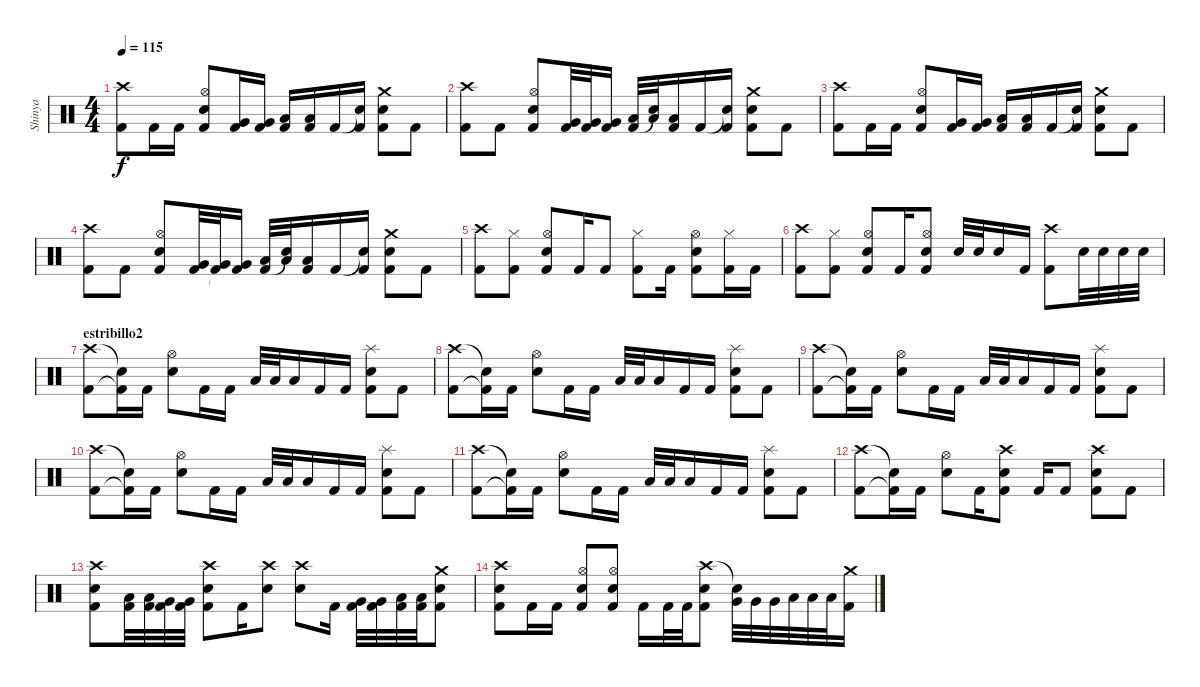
\track ("Shinya" "Shinya") {instrument percussion}
\staff {score}
\articulation defaults
\ts (4 4)
\tempo 115
\clef neutral
\ks c
("Crash high (hit)" "Kick (hit) 2").8{dy f} "Kick (hit) 2".16 "Kick (hit) 2".16 ("Hi-Hat (open)" "Electric Snare (hit)" "Kick (hit) 2").8 ("Very Low Tom (hit)" "Kick (hit) 2").16 ("Very Low Tom (hit)" "Kick (hit) 2").16 ("Low Floor Tom (hit)" "Kick (hit) 2").16 ("Low Floor Tom (hit)" "Kick (hit) 2").16 "Kick (hit) 2".16 ("Snare (hit)"{t} "Kick (hit) 2").16 ("Crash medium (hit)" "Electric Snare (hit)" "Kick (hit) 2").8 "Kick (hit) 2".8 |
("Crash high (hit)" "Kick (hit) 2").8 "Kick (hit) 2".8 ("Hi-Hat (open)" "Electric Snare (hit)" "Kick (hit) 2").8 ("Very Low Tom (hit)" "Kick (hit) 2").32 ("Very Low Tom (hit)" "Kick (hit) 2"{t}).32 ("Very Low Tom (hit)" "Kick (hit) 2").16 ("Low Floor Tom (hit)" "Kick (hit) 2").32 ("Low Floor Tom (hit)" "Snare (hit)"{t}).32 ("Low Floor Tom (hit)" "Kick (hit) 2").16 "Kick (hit) 2".16 ("Snare (hit)"{t} "Kick (hit) 2").16 ("Crash medium (hit)" "Electric Snare (hit)" "Kick (hit) 2").8 "Kick (hit) 2".8 |
("Crash high (hit)" "Kick (hit) 2").8 "Kick (hit) 2".16 "Kick (hit) 2".16 ("Hi-Hat (open)" "Electric Snare (hit)" "Kick (hit) 2").8 ("Very Low Tom (hit)" "Kick (hit) 2").16 ("Very Low Tom (hit)" "Kick (hit) 2").16 ("Low Floor Tom (hit)" "Kick (hit) 2").16 ("Low Floor Tom (hit)" "Kick (hit) 2").16 "Kick (hit) 2".16 ("Snare (hit)"{t} "Kick (hit) 2").16 ("Crash medium (hit)" "Electric Snare (hit)" "Kick (hit) 2").8 "Kick (hit) 2".8 |
("Crash high (hit)" "Kick (hit) 2").8 "Kick (hit) 2".8 ("Hi-Hat (open)" "Electric Snare (hit)" "Kick (hit) 2").8 ("Very Low Tom (hit)" "Kick (hit) 2").32 ("Very Low Tom (hit)" "Kick (hit) 2"{t}).32 ("Very Low Tom (hit)" "Kick (hit) 2").16 ("Low Floor Tom (hit)" "Kick (hit) 2").32 ("Low Floor Tom (hit)" "Snare (hit)"{t}).32 ("Low Floor Tom (hit)" "Kick (hit) 2").16 "Kick (hit) 2".16 ("Snare (hit)"{t} "Kick (hit) 2").16 ("Crash medium (hit)" "Electric Snare (hit)" "Kick (hit) 2").8 "Kick (hit) 2".8 |
("Crash high (hit)" "Kick (hit) 2").8 ("Hi-Hat (closed)" "Kick (hit) 2").8 ("Hi-Hat (open)" "Electric Snare (hit)" "Kick (hit) 2").8 "Kick (hit) 2".16 "Kick (hit) 2".8 ("Hi-Hat (closed)" "Kick (hit) 2").8 "Kick (hit) 2".16 ("Hi-Hat (open)" "Electric Snare (hit)" "Kick (hit) 2").8 ("Hi-Hat (closed)" "Kick (hit) 2").16 "Kick (hit) 2".16 |
("Crash high (hit)" "Kick (hit) 2").8 ("Hi-Hat (closed)" "Kick (hit) 2").8 ("Hi-Hat (open)" "Electric Snare (hit)" "Kick (hit) 2").8 "Kick (hit) 2".16 ("Hi-Hat (open)" "Electric Snare (hit)" "Kick (hit) 2").8 "Electric Snare (hit)".32 "Electric Snare (hit)".32 "Electric Snare (hit)".16 "Kick (hit) 2".16 ("Crash high (hit)" "Kick (hit) 2").8 "Electric Snare (hit)".32 "Electric Snare (hit)".32 "Electric Snare (hit)".32 "Electric Snare (hit)".32 |
\section ("" "estribillo2")
("Crash high (hit)" "Kick (hit) 2").8 ("Snare (hit)"{t} "Kick (hit) 2"{t}).16 "Kick (hit) 2".16 ("Hi-Hat (open)" "Electric Snare (hit)").8 "Kick (hit) 2".16 "Kick (hit) 2".16 "Low Floor Tom (hit)".32 "Low Floor Tom (hit)".32 "Low Floor Tom (hit)".16 "Kick (hit) 2".16 "Kick (hit) 2".16 ("Splash (hit)" "Electric Snare (hit)" "Kick (hit) 2").8 "Kick (hit) 2".8 |
("Crash high (hit)" "Kick (hit) 2").8 ("Snare (hit)"{t} "Kick (hit) 2"{t}).16 "Kick (hit) 2".16 ("Hi-Hat (open)" "Electric Snare (hit)").8 "Kick (hit) 2".16 "Kick (hit) 2".16 "Low Floor Tom (hit)".32 "Low Floor Tom (hit)".32 "Low Floor Tom (hit)".16 "Kick (hit) 2".16 "Kick (hit) 2".16 ("Splash (hit)" "Electric Snare (hit)" "Kick (hit) 2").8 "Kick (hit) 2".8 |
("Crash high (hit)" "Kick (hit) 2").8 ("Snare (hit)"{t} "Kick (hit) 2"{t}).16 "Kick (hit) 2".16 ("Hi-Hat (open)" "Electric Snare (hit)").8 "Kick (hit) 2".16 "Kick (hit) 2".16 "Low Floor Tom (hit)".32 "Low Floor Tom (hit)".32 "Low Floor Tom (hit)".16 "Kick (hit) 2".16 "Kick (hit) 2".16 ("Splash (hit)" "Electric Snare (hit)" "Kick (hit) 2").8 "Kick (hit) 2".8 |
("Crash high (hit)" "Kick (hit) 2").8 ("Snare (hit)"{t} "Kick (hit) 2"{t}).16 "Kick (hit) 2".16 ("Hi-Hat (open)" "Electric Snare (hit)").8 "Kick (hit) 2".16 "Kick (hit) 2".16 "Low Floor Tom (hit)".32 "Low Floor Tom (hit)".32 "Low Floor Tom (hit)".16 "Kick (hit) 2".16 "Kick (hit) 2".16 ("Splash (hit)" "Electric Snare (hit)" "Kick (hit) 2").8 "Kick (hit) 2".8 |
("Crash high (hit)" "Kick (hit) 2").8 ("Snare (hit)"{t} "Kick (hit) 2"{t}).16 "Kick (hit) 2".16 ("Hi-Hat (open)" "Electric Snare (hit)").8 "Kick (hit) 2".16 "Kick (hit) 2".16 "Low Floor Tom (hit)".32 "Low Floor Tom (hit)".32 "Low Floor Tom (hit)".16 "Kick (hit) 2".16 "Kick (hit) 2".16 ("Splash (hit)" "Electric Snare (hit)" "Kick (hit) 2").8 "Kick (hit) 2".8 |
("Crash high (hit)" "Kick (hit) 2").8 ("Snare (hit)"{t} "Kick (hit) 2"{t}).16 "Kick (hit) 2".16 ("Hi-Hat (open)" "Electric Snare (hit)").8 "Kick (hit) 2".16 ("Crash high (hit)" "Electric Snare (hit)" "Kick (hit) 2").8 "Kick (hit) 2".16 "Kick (hit) 2".8 ("Crash high (hit)" "Electric Snare (hit)" "Kick (hit) 2").8 "Kick (hit) 2".8 |
("Crash high (hit)" "Snare (hit) 2" "Kick (hit) 2").8 ("Low Tom (hit)" "Kick (hit) 2").32 ("Low Tom (hit)" "Kick (hit) 2").32 ("Very Low Tom (hit)" "Kick (hit) 2").32 ("Very Low Tom (hit)" "Kick (hit) 2").32 ("Crash high (hit)" "Electric Snare (hit)" "Kick (hit) 2").8 "Kick (hit) 2".16 ("Crash high (hit)" "Electric Snare (hit)").8 ("Crash high (hit)" "Electric Snare (hit)").8 "Kick (hit) 2".16 ("Very Low Tom (hit)" "Kick (hit) 2").32 ("Very Low Tom (hit)" "Kick (hit) 2").32 ("Low Floor Tom (hit)" "Kick (hit) 2").32 ("Low Floor Tom (hit)" "Kick (hit) 2").32 ("Crash medium (hit)" "Electric Snare (hit)" "Kick (hit) 2").8 |
("Crash high (hit)" "Electric Snare (hit)" "Kick (hit) 2").8 "Kick (hit) 2".16 "Kick (hit) 2".16 ("Hi-Hat (open)" "Electric Snare (hit)" "Kick (hit) 2").8 ("Hi-Hat (open)" "Electric Snare (hit)" "Kick (hit) 2").8 "Kick (hit) 2".16 "Kick (hit) 2".32 "Kick (hit) 2".32 ("Crash high (hit)" "Electric Snare (hit)" "Kick (hit) 2").8 ("Snare (hit)"{t} "Very Low Tom (hit)").32 "Very Low Tom (hit)".32 "Very Low Tom (hit)".32 "Low Floor Tom (hit)".32 "Low Floor Tom (hit)".32 "Low Floor Tom (hit)".32 ("Crash medium (hit)" "Kick (hit) 2").16
